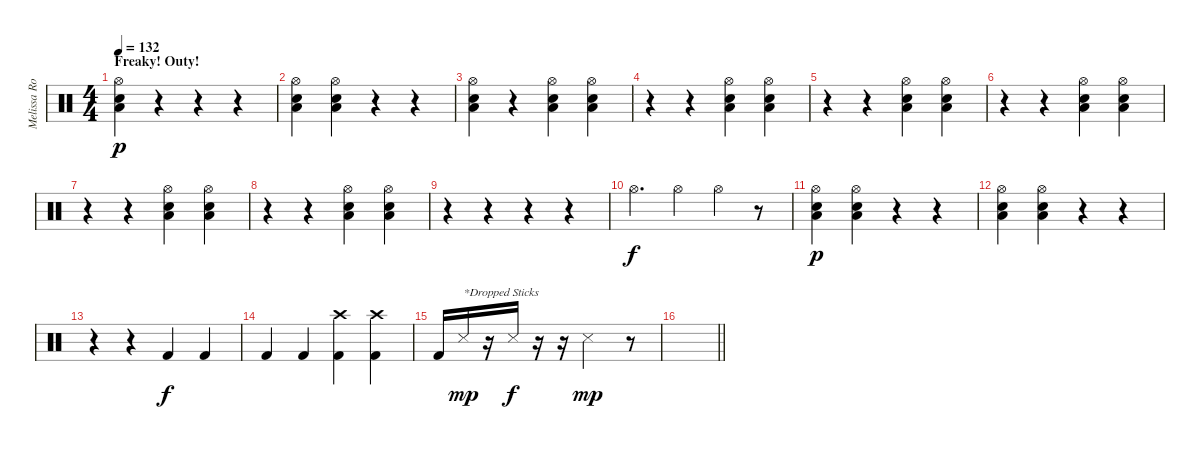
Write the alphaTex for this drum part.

\track ("Melissa Robbins" "Melissa Ro") {instrument percussion}
\staff {score}
\articulation defaults
\ts (4 4)
\section ("" "Freaky! Outy!")
\tempo 132
\clef neutral
\ks c
("Hi-Hat (open)" "Snare (hit) 2" "Low Floor Tom (hit)").4{dy p} r.4 r.4 r.4 |
("Hi-Hat (open)" "Snare (hit) 2" "Low Floor Tom (hit)").4 ("Hi-Hat (open)" "Snare (hit) 2" "Low Floor Tom (hit)").4 r.4 r.4 |
("Hi-Hat (open)" "Snare (hit) 2" "Low Floor Tom (hit)").4 r.4 ("Hi-Hat (open)" "Snare (hit) 2" "Low Floor Tom (hit)").4 ("Hi-Hat (open)" "Snare (hit) 2" "Low Floor Tom (hit)").4 |
r.4 r.4 ("Hi-Hat (open)" "Snare (hit) 2" "Low Floor Tom (hit)").4 ("Hi-Hat (open)" "Snare (hit) 2" "Low Floor Tom (hit)").4 |
r.4 r.4 ("Hi-Hat (open)" "Snare (hit) 2" "Low Floor Tom (hit)").4 ("Hi-Hat (open)" "Snare (hit) 2" "Low Floor Tom (hit)").4 |
r.4 r.4 ("Hi-Hat (open)" "Snare (hit) 2" "Low Floor Tom (hit)").4 ("Hi-Hat (open)" "Snare (hit) 2" "Low Floor Tom (hit)").4 |
r.4 r.4 ("Hi-Hat (open)" "Snare (hit) 2" "Low Floor Tom (hit)").4 ("Hi-Hat (open)" "Snare (hit) 2" "Low Floor Tom (hit)").4 |
r.4 r.4 ("Hi-Hat (open)" "Snare (hit) 2" "Low Floor Tom (hit)").4 ("Hi-Hat (open)" "Snare (hit) 2" "Low Floor Tom (hit)").4 |
r.4 r.4 r.4 r.4 |
"Hi-Hat (open)".4{d dy f} "Hi-Hat (open)".4 "Hi-Hat (open)".4 r.8 |
("Hi-Hat (open)" "Snare (hit) 2" "Low Floor Tom (hit)").4{dy p} ("Hi-Hat (open)" "Snare (hit) 2" "Low Floor Tom (hit)").4 r.4 r.4 |
("Hi-Hat (open)" "Snare (hit) 2" "Low Floor Tom (hit)").4 ("Hi-Hat (open)" "Snare (hit) 2" "Low Floor Tom (hit)").4 r.4 r.4 |
r.4 r.4 "Kick (hit) 2".4{dy f} "Kick (hit) 2".4 |
"Kick (hit) 2".4 "Kick (hit) 2".4 ("Crash high (hit)" "Kick (hit) 2").4 ("Crash high (hit)" "Kick (hit) 2").4 |
"Kick (hit) 2".16 "Snare (side stick) 3".16{txt "*Dropped Sticks" dy mp} r.16 "Snare (side stick) 3".16{dy f} r.16 r.16 "Snare (side stick) 3".2{dy mp} r.8 |
\barLineRight lightlight
